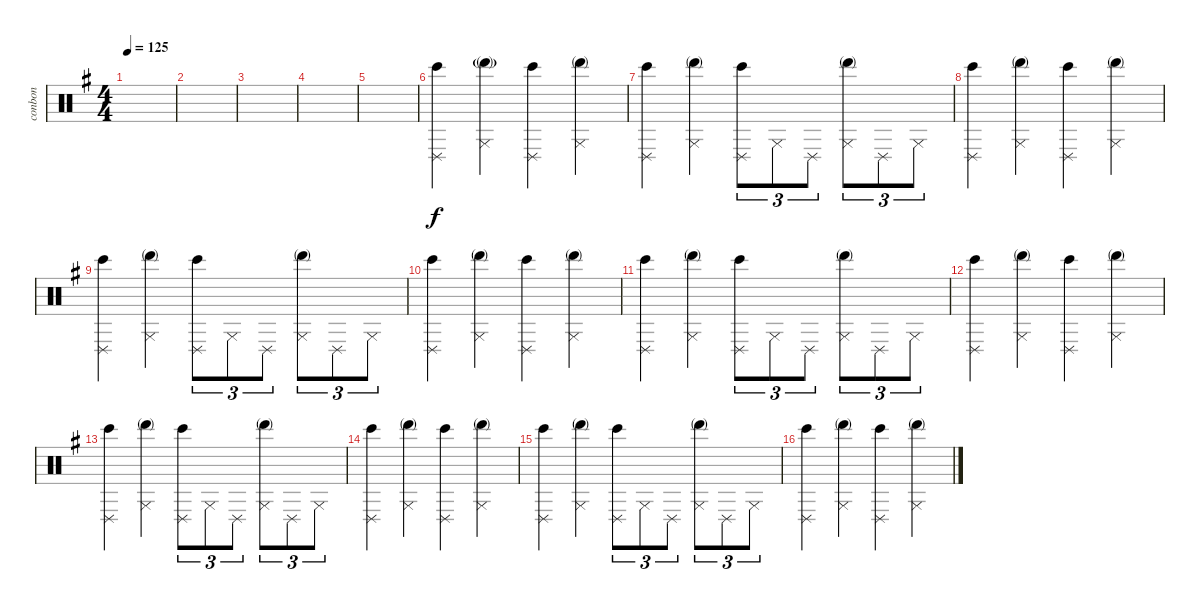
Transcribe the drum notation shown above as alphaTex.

\defaultSystemsLayout 4
\bracketExtendMode groupsimilarinstruments
\otherSystemsTrackNameOrientation horizontal
\track ("Bongos N Congas" "conbon") {instrument percussion}
\staff {score}
\articulation defaults
\ts (4 4)
\tempo 125
\clef neutral
\scale
0.474178
\ks g
|
\scale
0.262911 |
|
|
|
\scale
0.262911 ("Conga low (slap)"{acc forcenatural} "Bongo High (hit)"{acc forcenatural}).4{beam Down} ("Conga high (slap)"{acc forcenatural} "Hand (mute)"{g acc forcenatural}).4{beam Down} ("Conga low (slap)"{acc forcenatural} "Bongo High (hit)"{acc forcenatural}).4{beam Down} ("Conga high (slap)"{acc forcenatural} "Hand (mute)"{acc forcenatural}).4{beam Down} |
\scale
0.333333 ("Conga low (slap)"{acc forcenatural} "Bongo High (hit)"{acc forcenatural}).4{beam Down} ("Conga high (slap)"{acc forcenatural} "Hand (mute)"{acc forcenatural}).4{beam Down} ("Conga low (slap)"{acc forcenatural} "Bongo High (hit)"{acc forcenatural}).8{tu (3 2) beam Down} "Conga high (slap)"{acc forcenatural}.8{tu (3 2) beam Down} "Conga low (slap)"{acc forcenatural}.8{tu (3 2) beam Down} ("Conga high (slap)"{acc forcenatural} "Hand (mute)"{acc forcenatural}).8{tu (3 2) beam Down} "Conga low (slap)"{acc forcenatural}.8{tu (3 2) beam Down} "Conga high (slap)"{acc forcenatural}.8{tu (3 2) beam Down} |
\scale
0.333333 ("Conga low (slap)"{acc forcenatural} "Bongo High (hit)"{acc forcenatural}).4{beam Down} ("Conga high (slap)"{acc forcenatural} "Hand (mute)"{acc forcenatural}).4{beam Down} ("Conga low (slap)"{acc forcenatural} "Bongo High (hit)"{acc forcenatural}).4{beam Down} ("Conga high (slap)"{acc forcenatural} "Hand (mute)"{acc forcenatural}).4{beam Down} |
\scale
0.333333 ("Conga low (slap)"{acc forcenatural} "Bongo High (hit)"{acc forcenatural}).4{beam Down} ("Conga high (slap)"{acc forcenatural} "Hand (mute)"{acc forcenatural}).4{beam Down} ("Conga low (slap)"{acc forcenatural} "Bongo High (hit)"{acc forcenatural}).8{tu (3 2) beam Down} "Conga high (slap)"{acc forcenatural}.8{tu (3 2) beam Down} "Conga low (slap)"{acc forcenatural}.8{tu (3 2) beam Down} ("Conga high (slap)"{acc forcenatural} "Hand (mute)"{acc forcenatural}).8{tu (3 2) beam Down} "Conga low (slap)"{acc forcenatural}.8{tu (3 2) beam Down} "Conga high (slap)"{acc forcenatural}.8{tu (3 2) beam Down} |
\scale
0.333333 ("Conga low (slap)"{acc forcenatural} "Bongo High (hit)"{acc forcenatural}).4{beam Down} ("Conga high (slap)"{acc forcenatural} "Hand (mute)"{acc forcenatural}).4{beam Down} ("Conga low (slap)"{acc forcenatural} "Bongo High (hit)"{acc forcenatural}).4{beam Down} ("Conga high (slap)"{acc forcenatural} "Hand (mute)"{acc forcenatural}).4{beam Down} |
\scale
0.333333 ("Conga low (slap)"{acc forcenatural} "Bongo High (hit)"{acc forcenatural}).4{beam Down} ("Conga high (slap)"{acc forcenatural} "Hand (mute)"{acc forcenatural}).4{beam Down} ("Conga low (slap)"{acc forcenatural} "Bongo High (hit)"{acc forcenatural}).8{tu (3 2) beam Down} "Conga high (slap)"{acc forcenatural}.8{tu (3 2) beam Down} "Conga low (slap)"{acc forcenatural}.8{tu (3 2) beam Down} ("Conga high (slap)"{acc forcenatural} "Hand (mute)"{acc forcenatural}).8{tu (3 2) beam Down} "Conga low (slap)"{acc forcenatural}.8{tu (3 2) beam Down} "Conga high (slap)"{acc forcenatural}.8{tu (3 2) beam Down} |
\scale
0.333333 ("Conga low (slap)"{acc forcenatural} "Bongo High (hit)"{acc forcenatural}).4{beam Down} ("Conga high (slap)"{acc forcenatural} "Hand (mute)"{acc forcenatural}).4{beam Down} ("Conga low (slap)"{acc forcenatural} "Bongo High (hit)"{acc forcenatural}).4{beam Down} ("Conga high (slap)"{acc forcenatural} "Hand (mute)"{acc forcenatural}).4{beam Down} |
\scale
0.333333 ("Conga low (slap)"{acc forcenatural} "Bongo High (hit)"{acc forcenatural}).4{beam Down} ("Conga high (slap)"{acc forcenatural} "Hand (mute)"{acc forcenatural}).4{beam Down} ("Conga low (slap)"{acc forcenatural} "Bongo High (hit)"{acc forcenatural}).8{tu (3 2) beam Down} "Conga high (slap)"{acc forcenatural}.8{tu (3 2) beam Down} "Conga low (slap)"{acc forcenatural}.8{tu (3 2) beam Down} ("Conga high (slap)"{acc forcenatural} "Hand (mute)"{acc forcenatural}).8{tu (3 2) beam Down} "Conga low (slap)"{acc forcenatural}.8{tu (3 2) beam Down} "Conga high (slap)"{acc forcenatural}.8{tu (3 2) beam Down} |
\scale
0.333333 ("Conga low (slap)"{acc forcenatural} "Bongo High (hit)"{acc forcenatural}).4{beam Down} ("Conga high (slap)"{acc forcenatural} "Hand (mute)"{acc forcenatural}).4{beam Down} ("Conga low (slap)"{acc forcenatural} "Bongo High (hit)"{acc forcenatural}).4{beam Down} ("Conga high (slap)"{acc forcenatural} "Hand (mute)"{acc forcenatural}).4{beam Down} |
\scale
0.333333 ("Conga low (slap)"{acc forcenatural} "Bongo High (hit)"{acc forcenatural}).4{beam Down} ("Conga high (slap)"{acc forcenatural} "Hand (mute)"{acc forcenatural}).4{beam Down} ("Conga low (slap)"{acc forcenatural} "Bongo High (hit)"{acc forcenatural}).8{tu (3 2) beam Down} "Conga high (slap)"{acc forcenatural}.8{tu (3 2) beam Down} "Conga low (slap)"{acc forcenatural}.8{tu (3 2) beam Down} ("Conga high (slap)"{acc forcenatural} "Hand (mute)"{acc forcenatural}).8{tu (3 2) beam Down} "Conga low (slap)"{acc forcenatural}.8{tu (3 2) beam Down} "Conga high (slap)"{acc forcenatural}.8{tu (3 2) beam Down} |
\scale
0.333333 ("Conga low (slap)"{acc forcenatural} "Bongo High (hit)"{acc forcenatural}).4{beam Down} ("Conga high (slap)"{acc forcenatural} "Hand (mute)"{acc forcenatural}).4{beam Down} ("Conga low (slap)"{acc forcenatural} "Bongo High (hit)"{acc forcenatural}).4{beam Down} ("Conga high (slap)"{acc forcenatural} "Hand (mute)"{acc forcenatural}).4{beam Down}
